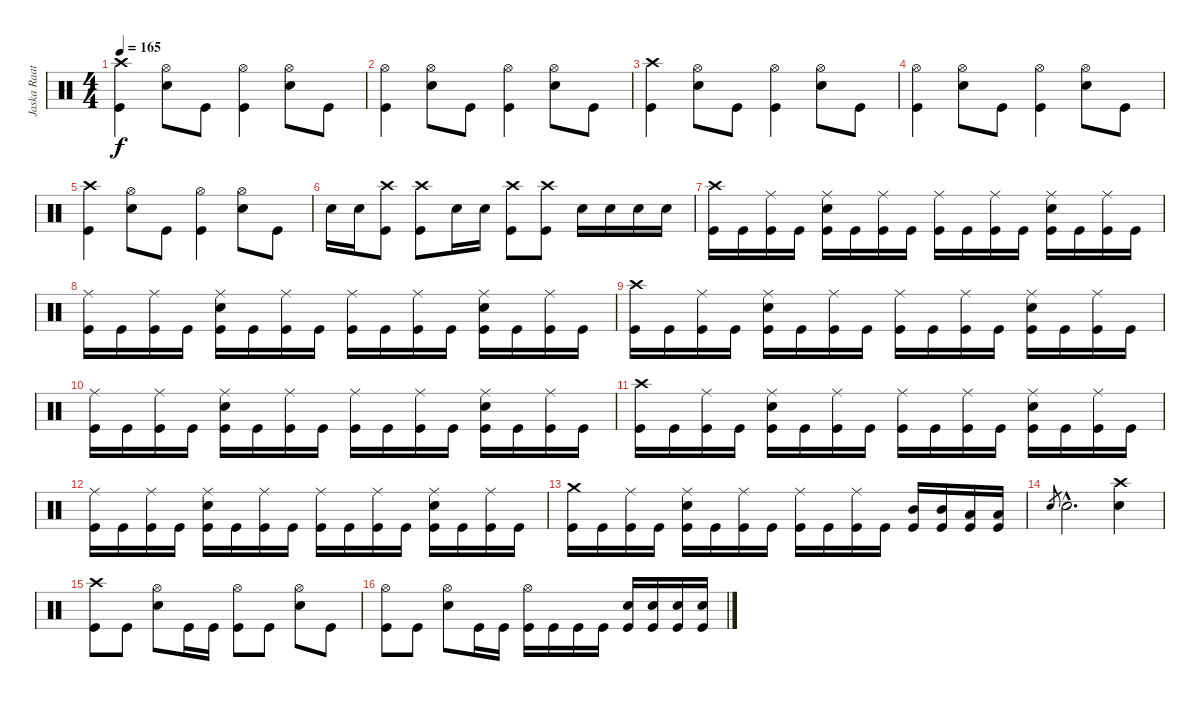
\track ("Jaska Raatikainen" "Jaska Raat") {instrument percussion}
\staff {score}
\articulation defaults
\ts (4 4)
\tempo 165
\clef neutral
\ks c
("Crash high (hit)" "Kick (hit)").4{dy f} ("Hi-Hat (open)" "Electric Snare (hit)").8 "Kick (hit)".8 ("Hi-Hat (open)" "Kick (hit)").4 ("Hi-Hat (open)" "Electric Snare (hit)").8 "Kick (hit)".8 |
("Hi-Hat (open)" "Kick (hit)").4 ("Hi-Hat (open)" "Electric Snare (hit)").8 "Kick (hit)".8 ("Hi-Hat (open)" "Kick (hit)").4 ("Hi-Hat (open)" "Electric Snare (hit)").8 "Kick (hit)".8 |
("Crash high (hit)" "Kick (hit)").4 ("Hi-Hat (open)" "Electric Snare (hit)").8 "Kick (hit)".8 ("Hi-Hat (open)" "Kick (hit)").4 ("Hi-Hat (open)" "Electric Snare (hit)").8 "Kick (hit)".8 |
("Hi-Hat (open)" "Kick (hit)").4 ("Hi-Hat (open)" "Electric Snare (hit)").8 "Kick (hit)".8 ("Hi-Hat (open)" "Kick (hit)").4 ("Hi-Hat (open)" "Electric Snare (hit)").8 "Kick (hit)".8 |
("Crash high (hit)" "Kick (hit)").4 ("Hi-Hat (open)" "Electric Snare (hit)").8 "Kick (hit)".8 ("Hi-Hat (open)" "Kick (hit)").4 ("Hi-Hat (open)" "Electric Snare (hit)").8 "Kick (hit)".8 |
"Electric Snare (hit)".16 "Electric Snare (hit)".16 ("Crash high (hit)" "Kick (hit)").8 ("Crash high (hit)" "Kick (hit)").8 "Electric Snare (hit)".16 "Electric Snare (hit)".16 ("Crash high (hit)" "Kick (hit)").8 ("Crash high (hit)" "Kick (hit)").8 "Electric Snare (hit)".16 "Electric Snare (hit)".16 "Electric Snare (hit)".16 "Electric Snare (hit)".16 |
("Crash high (hit)" "Kick (hit)").16 "Kick (hit)".16 ("Ride (middle)" "Kick (hit)").16 "Kick (hit)".16 ("Ride (middle)" "Electric Snare (hit)" "Kick (hit)").16 "Kick (hit)".16 ("Ride (middle)" "Kick (hit)").16 "Kick (hit)".16 ("Ride (middle)" "Kick (hit)").16 "Kick (hit)".16 ("Ride (middle)" "Kick (hit)").16 "Kick (hit)".16 ("Ride (middle)" "Electric Snare (hit)" "Kick (hit)").16 "Kick (hit)".16 ("Ride (middle)" "Kick (hit)").16 "Kick (hit)".16 |
("Ride (middle)" "Kick (hit)").16 "Kick (hit)".16 ("Ride (middle)" "Kick (hit)").16 "Kick (hit)".16 ("Ride (middle)" "Electric Snare (hit)" "Kick (hit)").16 "Kick (hit)".16 ("Ride (middle)" "Kick (hit)").16 "Kick (hit)".16 ("Ride (middle)" "Kick (hit)").16 "Kick (hit)".16 ("Ride (middle)" "Kick (hit)").16 "Kick (hit)".16 ("Ride (middle)" "Electric Snare (hit)" "Kick (hit)").16 "Kick (hit)".16 ("Ride (middle)" "Kick (hit)").16 "Kick (hit)".16 |
("Crash high (hit)" "Kick (hit)").16 "Kick (hit)".16 ("Ride (middle)" "Kick (hit)").16 "Kick (hit)".16 ("Ride (middle)" "Electric Snare (hit)" "Kick (hit)").16 "Kick (hit)".16 ("Ride (middle)" "Kick (hit)").16 "Kick (hit)".16 ("Ride (middle)" "Kick (hit)").16 "Kick (hit)".16 ("Ride (middle)" "Kick (hit)").16 "Kick (hit)".16 ("Ride (middle)" "Electric Snare (hit)" "Kick (hit)").16 "Kick (hit)".16 ("Ride (middle)" "Kick (hit)").16 "Kick (hit)".16 |
("Ride (middle)" "Kick (hit)").16 "Kick (hit)".16 ("Ride (middle)" "Kick (hit)").16 "Kick (hit)".16 ("Ride (middle)" "Electric Snare (hit)" "Kick (hit)").16 "Kick (hit)".16 ("Ride (middle)" "Kick (hit)").16 "Kick (hit)".16 ("Ride (middle)" "Kick (hit)").16 "Kick (hit)".16 ("Ride (middle)" "Kick (hit)").16 "Kick (hit)".16 ("Ride (middle)" "Electric Snare (hit)" "Kick (hit)").16 "Kick (hit)".16 ("Ride (middle)" "Kick (hit)").16 "Kick (hit)".16 |
("Crash high (hit)" "Kick (hit)").16 "Kick (hit)".16 ("Ride (middle)" "Kick (hit)").16 "Kick (hit)".16 ("Ride (middle)" "Electric Snare (hit)" "Kick (hit)").16 "Kick (hit)".16 ("Ride (middle)" "Kick (hit)").16 "Kick (hit)".16 ("Ride (middle)" "Kick (hit)").16 "Kick (hit)".16 ("Ride (middle)" "Kick (hit)").16 "Kick (hit)".16 ("Ride (middle)" "Electric Snare (hit)" "Kick (hit)").16 "Kick (hit)".16 ("Ride (middle)" "Kick (hit)").16 "Kick (hit)".16 |
("Ride (middle)" "Kick (hit)").16 "Kick (hit)".16 ("Ride (middle)" "Kick (hit)").16 "Kick (hit)".16 ("Ride (middle)" "Electric Snare (hit)" "Kick (hit)").16 "Kick (hit)".16 ("Ride (middle)" "Kick (hit)").16 "Kick (hit)".16 ("Ride (middle)" "Kick (hit)").16 "Kick (hit)".16 ("Ride (middle)" "Kick (hit)").16 "Kick (hit)".16 ("Ride (middle)" "Electric Snare (hit)" "Kick (hit)").16 "Kick (hit)".16 ("Ride (middle)" "Kick (hit)").16 "Kick (hit)".16 |
("Crash medium (hit)" "Kick (hit)").16 "Kick (hit)".16 ("Ride (middle)" "Kick (hit)").16 "Kick (hit)".16 ("Ride (middle)" "Electric Snare (hit)" "Kick (hit)").16 "Kick (hit)".16 ("Ride (middle)" "Kick (hit)").16 "Kick (hit)".16 ("Ride (middle)" "Kick (hit)").16 "Kick (hit)".16 ("Ride (middle)" "Kick (hit)").16 "Kick (hit)".16 ("Mid Tom (hit)" "Kick (hit)").16 ("Mid Tom (hit)" "Kick (hit)").16 ("Low Tom (hit)" "Kick (hit)").16 ("Low Tom (hit)" "Kick (hit)").16 |
"Electric Snare (hit)".8{gr} "Electric Snare (hit)"{hac}.2{d} ("Crash high (hit)" "Electric Snare (hit)").4 |
("Crash high (hit)" "Kick (hit)").8 "Kick (hit)".8 ("Hi-Hat (open)" "Electric Snare (hit)").8 "Kick (hit)".16 "Kick (hit)".16 ("Hi-Hat (open)" "Kick (hit)").8 "Kick (hit)".8 ("Hi-Hat (open)" "Electric Snare (hit)").8 "Kick (hit)".8 |
("Hi-Hat (open)" "Kick (hit)").8 "Kick (hit)".8 ("Hi-Hat (open)" "Electric Snare (hit)").8 "Kick (hit)".16 "Kick (hit)".16 ("Hi-Hat (open)" "Kick (hit)").16 "Kick (hit)".16 "Kick (hit)".16 "Kick (hit)".16 ("Electric Snare (hit)" "Kick (hit)").16 ("Electric Snare (hit)" "Kick (hit)").16 ("Electric Snare (hit)" "Kick (hit)").16 ("Electric Snare (hit)" "Kick (hit)").16
